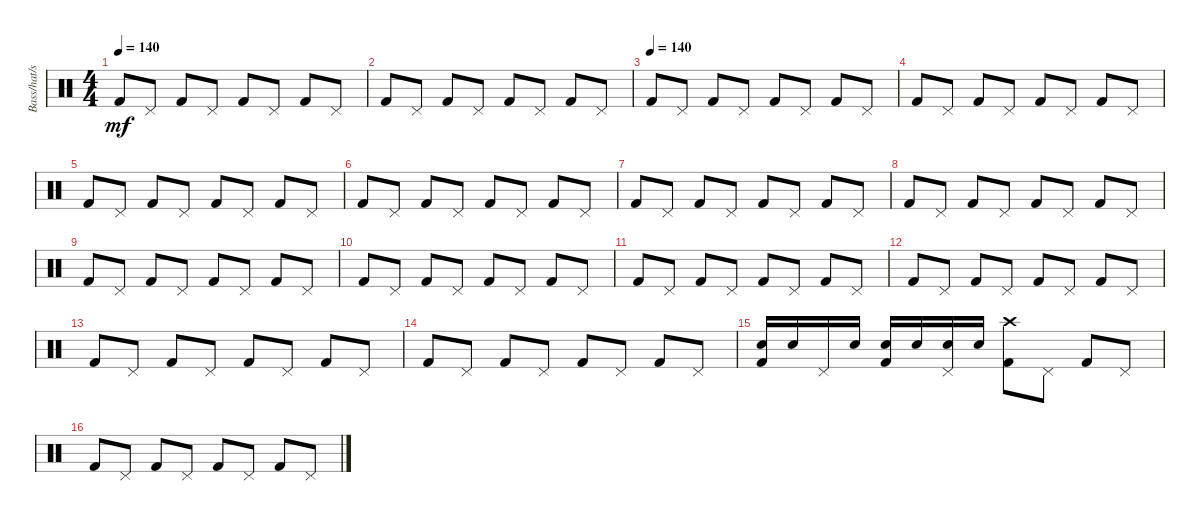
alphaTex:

\track ("Bass/hat/snare/cymbal" "Bass/hat/s") {instrument percussion}
\staff {score}
\articulation defaults
\ts (4 4)
\tempo 140
\clef neutral
\ks c "Kick (hit) 2".8{dy mf} "Pedal Hi-Hat (hit)".8 "Kick (hit) 2".8 "Pedal Hi-Hat (hit)".8 "Kick (hit) 2".8 "Pedal Hi-Hat (hit)".8 "Kick (hit) 2".8 "Pedal Hi-Hat (hit)".8
|
"Kick (hit) 2".8 "Pedal Hi-Hat (hit)".8 "Kick (hit) 2".8 "Pedal Hi-Hat (hit)".8 "Kick (hit) 2".8 "Pedal Hi-Hat (hit)".8 "Kick (hit) 2".8 "Pedal Hi-Hat (hit)".8 |
\tempo (140)
"Kick (hit) 2".8 "Pedal Hi-Hat (hit)".8 "Kick (hit) 2".8 "Pedal Hi-Hat (hit)".8 "Kick (hit) 2".8 "Pedal Hi-Hat (hit)".8 "Kick (hit) 2".8 "Pedal Hi-Hat (hit)".8 |
"Kick (hit) 2".8 "Pedal Hi-Hat (hit)".8 "Kick (hit) 2".8 "Pedal Hi-Hat (hit)".8 "Kick (hit) 2".8 "Pedal Hi-Hat (hit)".8 "Kick (hit) 2".8 "Pedal Hi-Hat (hit)".8 |
"Kick (hit) 2".8 "Pedal Hi-Hat (hit)".8 "Kick (hit) 2".8 "Pedal Hi-Hat (hit)".8 "Kick (hit) 2".8 "Pedal Hi-Hat (hit)".8 "Kick (hit) 2".8 "Pedal Hi-Hat (hit)".8 |
"Kick (hit) 2".8 "Pedal Hi-Hat (hit)".8 "Kick (hit) 2".8 "Pedal Hi-Hat (hit)".8 "Kick (hit) 2".8 "Pedal Hi-Hat (hit)".8 "Kick (hit) 2".8 "Pedal Hi-Hat (hit)".8 |
"Kick (hit) 2".8 "Pedal Hi-Hat (hit)".8 "Kick (hit) 2".8 "Pedal Hi-Hat (hit)".8 "Kick (hit) 2".8 "Pedal Hi-Hat (hit)".8 "Kick (hit) 2".8 "Pedal Hi-Hat (hit)".8 |
"Kick (hit) 2".8 "Pedal Hi-Hat (hit)".8 "Kick (hit) 2".8 "Pedal Hi-Hat (hit)".8 "Kick (hit) 2".8 "Pedal Hi-Hat (hit)".8 "Kick (hit) 2".8 "Pedal Hi-Hat (hit)".8 |
"Kick (hit) 2".8 "Pedal Hi-Hat (hit)".8 "Kick (hit) 2".8 "Pedal Hi-Hat (hit)".8 "Kick (hit) 2".8 "Pedal Hi-Hat (hit)".8 "Kick (hit) 2".8 "Pedal Hi-Hat (hit)".8 |
"Kick (hit) 2".8 "Pedal Hi-Hat (hit)".8 "Kick (hit) 2".8 "Pedal Hi-Hat (hit)".8 "Kick (hit) 2".8 "Pedal Hi-Hat (hit)".8 "Kick (hit) 2".8 "Pedal Hi-Hat (hit)".8 |
"Kick (hit) 2".8 "Pedal Hi-Hat (hit)".8 "Kick (hit) 2".8 "Pedal Hi-Hat (hit)".8 "Kick (hit) 2".8 "Pedal Hi-Hat (hit)".8 "Kick (hit) 2".8 "Pedal Hi-Hat (hit)".8 |
"Kick (hit) 2".8 "Pedal Hi-Hat (hit)".8 "Kick (hit) 2".8 "Pedal Hi-Hat (hit)".8 "Kick (hit) 2".8 "Pedal Hi-Hat (hit)".8 "Kick (hit) 2".8 "Pedal Hi-Hat (hit)".8 |
"Kick (hit) 2".8 "Pedal Hi-Hat (hit)".8 "Kick (hit) 2".8 "Pedal Hi-Hat (hit)".8 "Kick (hit) 2".8 "Pedal Hi-Hat (hit)".8 "Kick (hit) 2".8 "Pedal Hi-Hat (hit)".8 |
"Kick (hit) 2".8 "Pedal Hi-Hat (hit)".8 "Kick (hit) 2".8 "Pedal Hi-Hat (hit)".8 "Kick (hit) 2".8 "Pedal Hi-Hat (hit)".8 "Kick (hit) 2".8 "Pedal Hi-Hat (hit)".8 |
("Kick (hit) 2" "Snare (hit) 2").16 "Snare (hit) 2".16 "Pedal Hi-Hat (hit)".16 "Snare (hit) 2".16 ("Kick (hit) 2" "Snare (hit) 2").16 "Snare (hit) 2".16 ("Snare (hit) 2" "Pedal Hi-Hat (hit)").16 "Snare (hit) 2".16 ("Kick (hit) 2" "Crash high (hit)").8 "Pedal Hi-Hat (hit)".8 "Kick (hit) 2".8 "Pedal Hi-Hat (hit)".8 |
"Kick (hit) 2".8 "Pedal Hi-Hat (hit)".8 "Kick (hit) 2".8 "Pedal Hi-Hat (hit)".8 "Kick (hit) 2".8 "Pedal Hi-Hat (hit)".8 "Kick (hit) 2".8 "Pedal Hi-Hat (hit)".8
